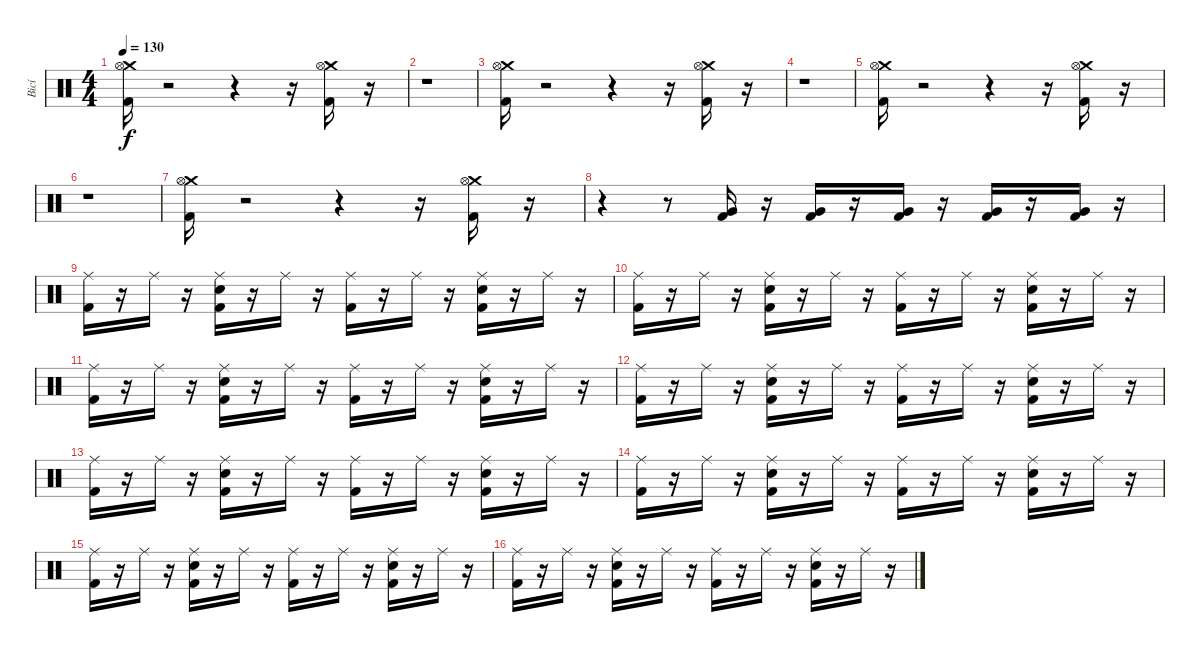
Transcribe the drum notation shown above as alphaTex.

\track ("Bicí" "Bicí") {instrument percussion}
\staff {score}
\articulation defaults
\ts (4 4)
\tempo 130
\clef neutral
\ks c
("Crash medium (hit)" "Hi-Hat (open)" "Kick (hit) 2").16{dy f} r.2 r.4 r.16 ("Crash medium (hit)" "Hi-Hat (open)" "Kick (hit) 2").16 r.16 |
r.1 |
("Crash medium (hit)" "Hi-Hat (open)" "Kick (hit) 2").16 r.2 r.4 r.16 ("Crash medium (hit)" "Hi-Hat (open)" "Kick (hit) 2").16 r.16 |
r.1 |
("Crash medium (hit)" "Hi-Hat (open)" "Kick (hit) 2").16 r.2 r.4 r.16 ("Crash medium (hit)" "Hi-Hat (open)" "Kick (hit) 2").16 r.16 |
r.1 |
("Crash medium (hit)" "Hi-Hat (open)" "Kick (hit) 2").16 r.2 r.4 r.16 ("Crash medium (hit)" "Hi-Hat (open)" "Kick (hit) 2").16 r.16 |
r.4 r.8 ("Very Low Tom (hit)" "Kick (hit) 2").16 r.16 ("Very Low Tom (hit)" "Kick (hit) 2").16 r.16 ("Very Low Tom (hit)" "Kick (hit) 2").16 r.16 ("Very Low Tom (hit)" "Kick (hit) 2").16 r.16 ("Very Low Tom (hit)" "Kick (hit) 2").16 r.16 |
("Ride (middle)" "Kick (hit) 2").16 r.16 "Ride (middle)".16 r.16 ("Ride (middle)" "Electric Snare (hit)" "Kick (hit) 2").16 r.16 "Ride (middle)".16 r.16 ("Ride (middle)" "Kick (hit) 2").16 r.16 "Ride (middle)".16 r.16 ("Ride (middle)" "Electric Snare (hit)" "Kick (hit) 2").16 r.16 "Ride (middle)".16 r.16 |
("Ride (middle)" "Kick (hit) 2").16 r.16 "Ride (middle)".16 r.16 ("Ride (middle)" "Electric Snare (hit)" "Kick (hit) 2").16 r.16 "Ride (middle)".16 r.16 ("Ride (middle)" "Kick (hit) 2").16 r.16 "Ride (middle)".16 r.16 ("Ride (middle)" "Electric Snare (hit)" "Kick (hit) 2").16 r.16 "Ride (middle)".16 r.16 |
("Ride (middle)" "Kick (hit) 2").16 r.16 "Ride (middle)".16 r.16 ("Ride (middle)" "Electric Snare (hit)" "Kick (hit) 2").16 r.16 "Ride (middle)".16 r.16 ("Ride (middle)" "Kick (hit) 2").16 r.16 "Ride (middle)".16 r.16 ("Ride (middle)" "Electric Snare (hit)" "Kick (hit) 2").16 r.16 "Ride (middle)".16 r.16 |
("Ride (middle)" "Kick (hit) 2").16 r.16 "Ride (middle)".16 r.16 ("Ride (middle)" "Electric Snare (hit)" "Kick (hit) 2").16 r.16 "Ride (middle)".16 r.16 ("Ride (middle)" "Kick (hit) 2").16 r.16 "Ride (middle)".16 r.16 ("Ride (middle)" "Electric Snare (hit)" "Kick (hit) 2").16 r.16 "Ride (middle)".16 r.16 |
("Ride (middle)" "Kick (hit) 2").16 r.16 "Ride (middle)".16 r.16 ("Ride (middle)" "Electric Snare (hit)" "Kick (hit) 2").16 r.16 "Ride (middle)".16 r.16 ("Ride (middle)" "Kick (hit) 2").16 r.16 "Ride (middle)".16 r.16 ("Ride (middle)" "Electric Snare (hit)" "Kick (hit) 2").16 r.16 "Ride (middle)".16 r.16 |
("Ride (middle)" "Kick (hit) 2").16 r.16 "Ride (middle)".16 r.16 ("Ride (middle)" "Electric Snare (hit)" "Kick (hit) 2").16 r.16 "Ride (middle)".16 r.16 ("Ride (middle)" "Kick (hit) 2").16 r.16 "Ride (middle)".16 r.16 ("Ride (middle)" "Electric Snare (hit)" "Kick (hit) 2").16 r.16 "Ride (middle)".16 r.16 |
("Ride (middle)" "Kick (hit) 2").16 r.16 "Ride (middle)".16 r.16 ("Ride (middle)" "Electric Snare (hit)" "Kick (hit) 2").16 r.16 "Ride (middle)".16 r.16 ("Ride (middle)" "Kick (hit) 2").16 r.16 "Ride (middle)".16 r.16 ("Ride (middle)" "Electric Snare (hit)" "Kick (hit) 2").16 r.16 "Ride (middle)".16 r.16 |
("Ride (middle)" "Kick (hit) 2").16 r.16 "Ride (middle)".16 r.16 ("Ride (middle)" "Electric Snare (hit)" "Kick (hit) 2").16 r.16 "Ride (middle)".16 r.16 ("Ride (middle)" "Kick (hit) 2").16 r.16 "Ride (middle)".16 r.16 ("Ride (middle)" "Electric Snare (hit)" "Kick (hit) 2").16 r.16 "Ride (middle)".16 r.16
